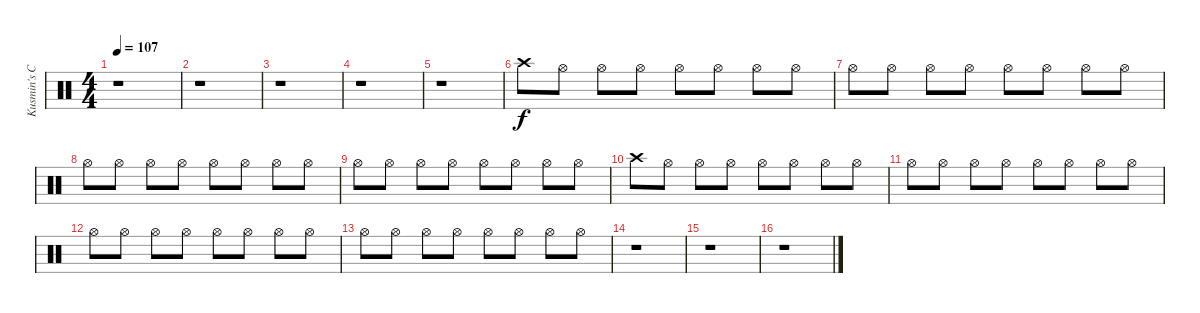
\track ("Kusmin's Cymballage" "Kusmin's C") {instrument percussion}
\staff {score}
\articulation defaults
\ts (4 4)
\tempo 107
\clef neutral
\ks c
r.1{dy f} |
r.1 |
r.1 |
r.1 |
r.1 |
"Crash high (hit)".8 "Hi-Hat (open)".8 "Hi-Hat (open)".8 "Hi-Hat (open)".8 "Hi-Hat (open)".8 "Hi-Hat (open)".8 "Hi-Hat (open)".8 "Hi-Hat (open)".8 |
"Hi-Hat (open)".8 "Hi-Hat (open)".8 "Hi-Hat (open)".8 "Hi-Hat (open)".8 "Hi-Hat (open)".8 "Hi-Hat (open)".8 "Hi-Hat (open)".8 "Hi-Hat (open)".8 |
"Hi-Hat (open)".8 "Hi-Hat (open)".8 "Hi-Hat (open)".8 "Hi-Hat (open)".8 "Hi-Hat (open)".8 "Hi-Hat (open)".8 "Hi-Hat (open)".8 "Hi-Hat (open)".8 |
"Hi-Hat (open)".8 "Hi-Hat (open)".8 "Hi-Hat (open)".8 "Hi-Hat (open)".8 "Hi-Hat (open)".8 "Hi-Hat (open)".8 "Hi-Hat (open)".8 "Hi-Hat (open)".8 |
"Crash high (hit)".8 "Hi-Hat (open)".8 "Hi-Hat (open)".8 "Hi-Hat (open)".8 "Hi-Hat (open)".8 "Hi-Hat (open)".8 "Hi-Hat (open)".8 "Hi-Hat (open)".8 |
"Hi-Hat (open)".8 "Hi-Hat (open)".8 "Hi-Hat (open)".8 "Hi-Hat (open)".8 "Hi-Hat (open)".8 "Hi-Hat (open)".8 "Hi-Hat (open)".8 "Hi-Hat (open)".8 |
"Hi-Hat (open)".8 "Hi-Hat (open)".8 "Hi-Hat (open)".8 "Hi-Hat (open)".8 "Hi-Hat (open)".8 "Hi-Hat (open)".8 "Hi-Hat (open)".8 "Hi-Hat (open)".8 |
"Hi-Hat (open)".8 "Hi-Hat (open)".8 "Hi-Hat (open)".8 "Hi-Hat (open)".8 "Hi-Hat (open)".8 "Hi-Hat (open)".8 "Hi-Hat (open)".8 "Hi-Hat (open)".8 |
r.1 |
r.1 |
r.1
